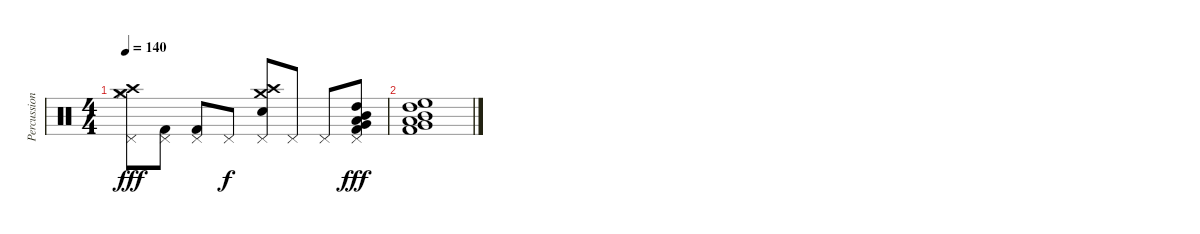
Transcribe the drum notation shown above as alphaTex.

\track ("Percussion" "Percussion") {instrument percussion}
\staff {score}
\articulation defaults
\ts (4 4)
\tempo 140
\clef neutral
\ks c
("Pedal Hi-Hat (hit)" "Crash high (hit)" "Hi-Hat (closed)" "Crash medium (hit)").8{dy fff} ("Pedal Hi-Hat (hit)" "Kick (hit) 2").8 ("Pedal Hi-Hat (hit)" "Kick (hit) 2").8 "Pedal Hi-Hat (hit)".8{dy f} ("Pedal Hi-Hat (hit)" "Crash high (hit)" "Crash medium (hit)" "Electric Snare (hit)").8 "Pedal Hi-Hat (hit)".8 "Pedal Hi-Hat (hit)".8 ("High Tom (hit)" "Very Low Tom (hit)" "Mid Tom (hit)" "Pedal Hi-Hat (hit)" "Low Floor Tom (hit)" "Kick (hit) 2").8{dy fff} |
("High Floor Tom (hit)" "High Tom (hit)" "Very Low Tom (hit)" "Mid Tom (hit)" "Low Floor Tom (hit)" "Kick (hit) 2").1
